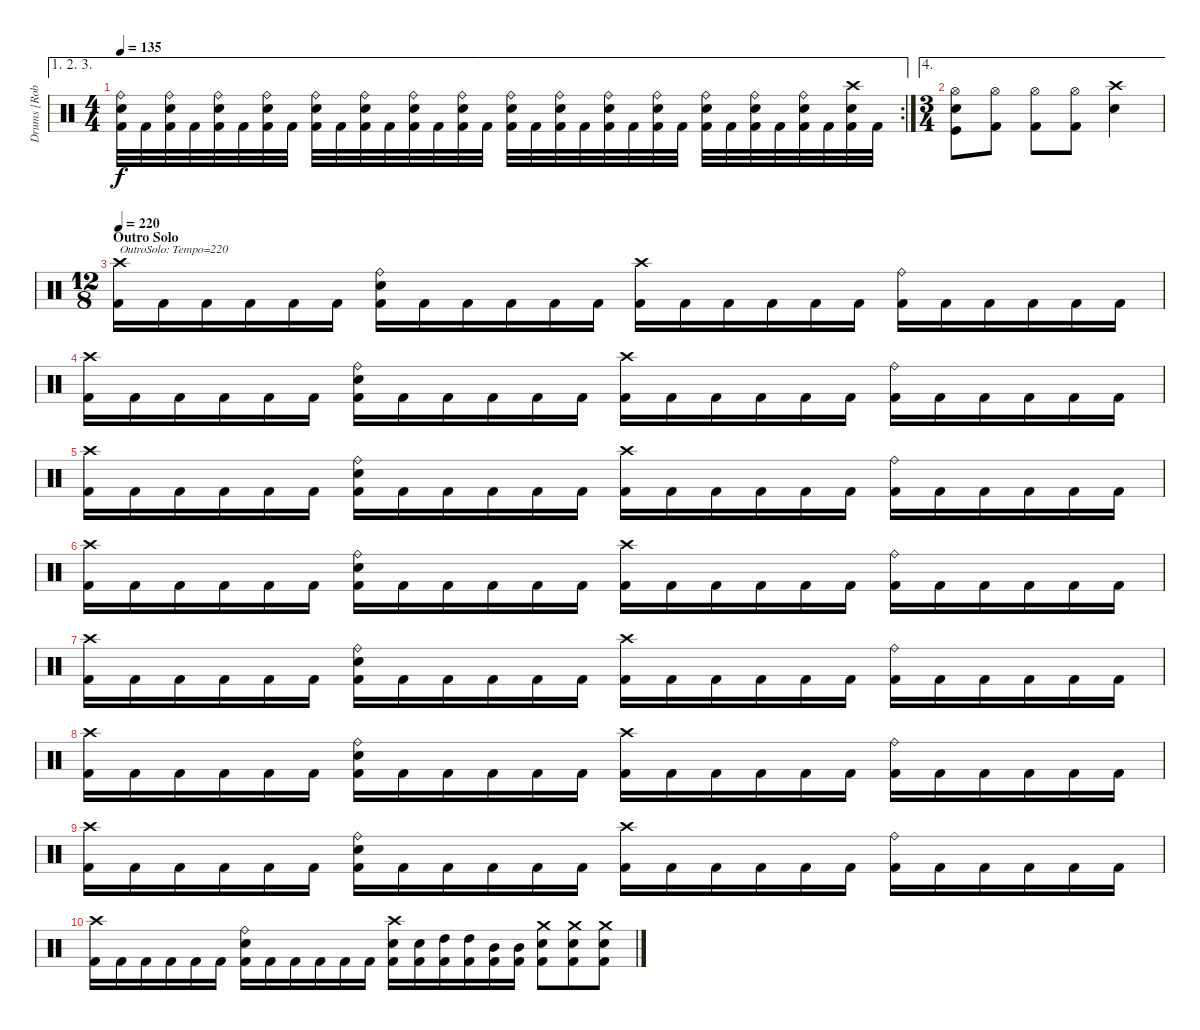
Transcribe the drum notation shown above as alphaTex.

\track ("Drums [Robert Patrick]" "Drums [Rob") {instrument percussion}
\staff {score}
\articulation defaults
\ae (1 2 3)
\rc 2
\ts (4 4)
\tempo 135
\clef neutral
\ks c
("Ride (bell)" "Electric Snare (hit)" "Kick (hit) 2").32{dy f} "Kick (hit) 2".32 ("Ride (bell)" "Electric Snare (hit)" "Kick (hit) 2").32 "Kick (hit) 2".32 ("Ride (bell)" "Electric Snare (hit)" "Kick (hit) 2").32 "Kick (hit) 2".32 ("Ride (bell)" "Electric Snare (hit)" "Kick (hit) 2").32 "Kick (hit) 2".32 ("Ride (bell)" "Electric Snare (hit)" "Kick (hit) 2").32 "Kick (hit) 2".32 ("Ride (bell)" "Electric Snare (hit)" "Kick (hit) 2").32 "Kick (hit) 2".32 ("Ride (bell)" "Electric Snare (hit)" "Kick (hit) 2").32 "Kick (hit) 2".32 ("Ride (bell)" "Electric Snare (hit)" "Kick (hit) 2").32 "Kick (hit) 2".32 ("Ride (bell)" "Electric Snare (hit)" "Kick (hit) 2").32 "Kick (hit) 2".32 ("Ride (bell)" "Electric Snare (hit)" "Kick (hit) 2").32 "Kick (hit) 2".32 ("Ride (bell)" "Electric Snare (hit)" "Kick (hit) 2").32 "Kick (hit) 2".32 ("Ride (bell)" "Electric Snare (hit)" "Kick (hit) 2").32 "Kick (hit) 2".32 ("Ride (bell)" "Electric Snare (hit)" "Kick (hit) 2").32 "Kick (hit) 2".32 ("Ride (bell)" "Electric Snare (hit)" "Kick (hit) 2").32 "Kick (hit) 2".32 ("Ride (bell)" "Electric Snare (hit)" "Kick (hit) 2").32 "Kick (hit) 2".32 ("Crash high (hit)" "Electric Snare (hit)" "Kick (hit) 2").32 "Kick (hit) 2".32 |
\ae 4
\ts (3 4)
("Hi-Hat (open)" "Electric Snare (hit)" "Kick (hit)").8 ("Hi-Hat (open)" "Kick (hit) 2").8 ("Hi-Hat (open)" "Kick (hit) 2").8 ("Hi-Hat (open)" "Kick (hit) 2").8 ("Crash high (hit)" "Electric Snare (hit)").4 |
\ts (12 8)
\section ("" "Outro Solo")
\tempo 220
("Crash high (hit)" "Kick (hit) 2").16{txt "OutroSolo: Tempo=220"} "Kick (hit) 2".16 "Kick (hit) 2".16 "Kick (hit) 2".16 "Kick (hit) 2".16 "Kick (hit) 2".16 ("Ride (bell)" "Electric Snare (hit)" "Kick (hit) 2").16 "Kick (hit) 2".16 "Kick (hit) 2".16 "Kick (hit) 2".16 "Kick (hit) 2".16 "Kick (hit) 2".16 ("Crash high (hit)" "Kick (hit) 2").16 "Kick (hit) 2".16 "Kick (hit) 2".16 "Kick (hit) 2".16 "Kick (hit) 2".16 "Kick (hit) 2".16 ("Ride (bell)" "Kick (hit) 2").16 "Kick (hit) 2".16 "Kick (hit) 2".16 "Kick (hit) 2".16 "Kick (hit) 2".16 "Kick (hit) 2".16 |
("Crash high (hit)" "Kick (hit) 2").16 "Kick (hit) 2".16 "Kick (hit) 2".16 "Kick (hit) 2".16 "Kick (hit) 2".16 "Kick (hit) 2".16 ("Ride (bell)" "Electric Snare (hit)" "Kick (hit) 2").16 "Kick (hit) 2".16 "Kick (hit) 2".16 "Kick (hit) 2".16 "Kick (hit) 2".16 "Kick (hit) 2".16 ("Crash high (hit)" "Kick (hit) 2").16 "Kick (hit) 2".16 "Kick (hit) 2".16 "Kick (hit) 2".16 "Kick (hit) 2".16 "Kick (hit) 2".16 ("Ride (bell)" "Kick (hit) 2").16 "Kick (hit) 2".16 "Kick (hit) 2".16 "Kick (hit) 2".16 "Kick (hit) 2".16 "Kick (hit) 2".16 |
("Crash high (hit)" "Kick (hit) 2").16 "Kick (hit) 2".16 "Kick (hit) 2".16 "Kick (hit) 2".16 "Kick (hit) 2".16 "Kick (hit) 2".16 ("Ride (bell)" "Electric Snare (hit)" "Kick (hit) 2").16 "Kick (hit) 2".16 "Kick (hit) 2".16 "Kick (hit) 2".16 "Kick (hit) 2".16 "Kick (hit) 2".16 ("Crash high (hit)" "Kick (hit) 2").16 "Kick (hit) 2".16 "Kick (hit) 2".16 "Kick (hit) 2".16 "Kick (hit) 2".16 "Kick (hit) 2".16 ("Ride (bell)" "Kick (hit) 2").16 "Kick (hit) 2".16 "Kick (hit) 2".16 "Kick (hit) 2".16 "Kick (hit) 2".16 "Kick (hit) 2".16 |
("Crash high (hit)" "Kick (hit) 2").16 "Kick (hit) 2".16 "Kick (hit) 2".16 "Kick (hit) 2".16 "Kick (hit) 2".16 "Kick (hit) 2".16 ("Ride (bell)" "Electric Snare (hit)" "Kick (hit) 2").16 "Kick (hit) 2".16 "Kick (hit) 2".16 "Kick (hit) 2".16 "Kick (hit) 2".16 "Kick (hit) 2".16 ("Crash high (hit)" "Kick (hit) 2").16 "Kick (hit) 2".16 "Kick (hit) 2".16 "Kick (hit) 2".16 "Kick (hit) 2".16 "Kick (hit) 2".16 ("Ride (bell)" "Kick (hit) 2").16 "Kick (hit) 2".16 "Kick (hit) 2".16 "Kick (hit) 2".16 "Kick (hit) 2".16 "Kick (hit) 2".16 |
("Crash high (hit)" "Kick (hit) 2").16 "Kick (hit) 2".16 "Kick (hit) 2".16 "Kick (hit) 2".16 "Kick (hit) 2".16 "Kick (hit) 2".16 ("Ride (bell)" "Electric Snare (hit)" "Kick (hit) 2").16 "Kick (hit) 2".16 "Kick (hit) 2".16 "Kick (hit) 2".16 "Kick (hit) 2".16 "Kick (hit) 2".16 ("Crash high (hit)" "Kick (hit) 2").16 "Kick (hit) 2".16 "Kick (hit) 2".16 "Kick (hit) 2".16 "Kick (hit) 2".16 "Kick (hit) 2".16 ("Ride (bell)" "Kick (hit) 2").16 "Kick (hit) 2".16 "Kick (hit) 2".16 "Kick (hit) 2".16 "Kick (hit) 2".16 "Kick (hit) 2".16 |
("Crash high (hit)" "Kick (hit) 2").16 "Kick (hit) 2".16 "Kick (hit) 2".16 "Kick (hit) 2".16 "Kick (hit) 2".16 "Kick (hit) 2".16 ("Ride (bell)" "Electric Snare (hit)" "Kick (hit) 2").16 "Kick (hit) 2".16 "Kick (hit) 2".16 "Kick (hit) 2".16 "Kick (hit) 2".16 "Kick (hit) 2".16 ("Crash high (hit)" "Kick (hit) 2").16 "Kick (hit) 2".16 "Kick (hit) 2".16 "Kick (hit) 2".16 "Kick (hit) 2".16 "Kick (hit) 2".16 ("Ride (bell)" "Kick (hit) 2").16 "Kick (hit) 2".16 "Kick (hit) 2".16 "Kick (hit) 2".16 "Kick (hit) 2".16 "Kick (hit) 2".16 |
("Crash high (hit)" "Kick (hit) 2").16 "Kick (hit) 2".16 "Kick (hit) 2".16 "Kick (hit) 2".16 "Kick (hit) 2".16 "Kick (hit) 2".16 ("Ride (bell)" "Electric Snare (hit)" "Kick (hit) 2").16 "Kick (hit) 2".16 "Kick (hit) 2".16 "Kick (hit) 2".16 "Kick (hit) 2".16 "Kick (hit) 2".16 ("Crash high (hit)" "Kick (hit) 2").16 "Kick (hit) 2".16 "Kick (hit) 2".16 "Kick (hit) 2".16 "Kick (hit) 2".16 "Kick (hit) 2".16 ("Ride (bell)" "Kick (hit) 2").16 "Kick (hit) 2".16 "Kick (hit) 2".16 "Kick (hit) 2".16 "Kick (hit) 2".16 "Kick (hit) 2".16 |
("Crash high (hit)" "Kick (hit) 2").16 "Kick (hit) 2".16 "Kick (hit) 2".16 "Kick (hit) 2".16 "Kick (hit) 2".16 "Kick (hit) 2".16 ("Ride (bell)" "Electric Snare (hit)" "Kick (hit) 2").16 "Kick (hit) 2".16 "Kick (hit) 2".16 "Kick (hit) 2".16 "Kick (hit) 2".16 "Kick (hit) 2".16 ("Crash high (hit)" "Electric Snare (hit)" "Kick (hit) 2").16 ("Electric Snare (hit)" "Kick (hit) 2").16 ("High Tom (hit)" "Kick (hit) 2").16 ("High Tom (hit)" "Kick (hit) 2").16 ("Mid Tom (hit)" "Kick (hit) 2").16 ("Mid Tom (hit)" "Kick (hit) 2").16 ("Crash medium (hit)" "Electric Snare (hit)" "Kick (hit) 2").8 ("Crash medium (hit)" "Electric Snare (hit)" "Kick (hit) 2").8 ("Crash medium (hit)" "Electric Snare (hit)" "Kick (hit) 2").8
